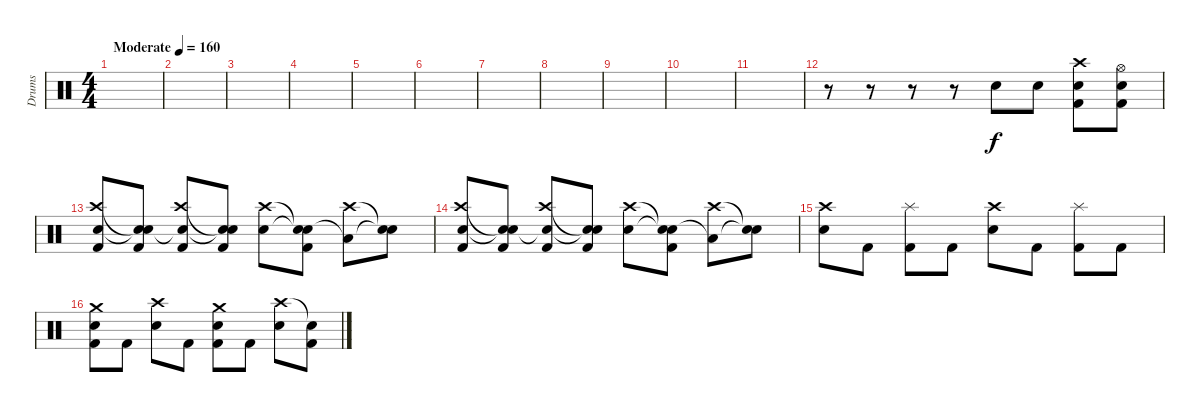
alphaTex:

\track ("Drums" "Drums") {instrument percussion}
\staff {score}
\articulation defaults
\ts (4 4)
\tempo (160 "Moderate")
\clef neutral
\ks c
|
|
|
|
|
|
|
|
|
|
|
r.8 r.8 r.8 r.8 "Snare (hit) 2".8 "Snare (hit) 2".8 ("Crash high (hit)" "Snare (hit) 2" "Kick (hit) 2").8 ("Hi-Hat (open)" "Snare (hit) 2" "Kick (hit) 2").8 |
("Crash high (hit)" "Snare (hit) 2" "Kick (hit) 2").8 ("Snare (hit)"{t} "Snare (hit) 2"{t} "Kick (hit) 2").8 ("Crash high (hit)" "Snare (hit)"{t} "Kick (hit) 2").8 ("Snare (hit)"{t} "Snare (hit)"{t} "Kick (hit) 2").8 ("Crash high (hit)" "Snare (hit) 2").8 ("Snare (hit)"{t} "Snare (hit) 2"{t} "Kick (hit) 2").8 ("Crash high (hit)" "Low Tom (hit)"{t}).8 ("Snare (hit)"{t} "Snare (hit)"{t}).8 |
("Crash high (hit)" "Snare (hit) 2" "Kick (hit) 2").8 ("Snare (hit)"{t} "Snare (hit)"{t} "Kick (hit) 2").8 ("Crash high (hit)" "Snare (hit)"{t} "Kick (hit) 2").8 ("Snare (hit)"{t} "Snare (hit)"{t} "Kick (hit) 2").8 ("Crash high (hit)" "Snare (hit) 2").8 ("Snare (hit)"{t} "Snare (hit)"{t} "Kick (hit) 2").8 ("Crash high (hit)" "Low Tom (hit)"{t}).8 ("Snare (hit)"{t} "Snare (hit)"{t}).8 |
("Crash high (hit)" "Snare (hit) 2").8 "Kick (hit) 2".8 ("Splash (hit)" "Kick (hit) 2").8 "Kick (hit) 2".8 ("Crash high (hit)" "Snare (hit) 2").8 "Kick (hit) 2".8 ("Splash (hit)" "Kick (hit) 2").8 "Kick (hit) 2".8 |
("Crash medium (hit)" "Snare (hit) 2" "Kick (hit) 2").8 "Kick (hit) 2".8 ("Crash high (hit)" "Snare (hit) 2").8 "Kick (hit) 2".8 ("Crash medium (hit)" "Snare (hit) 2" "Kick (hit) 2").8 "Kick (hit) 2".8 ("Crash high (hit)" "Snare (hit) 2").8 ("Snare (hit)"{t} "Kick (hit) 2").8
